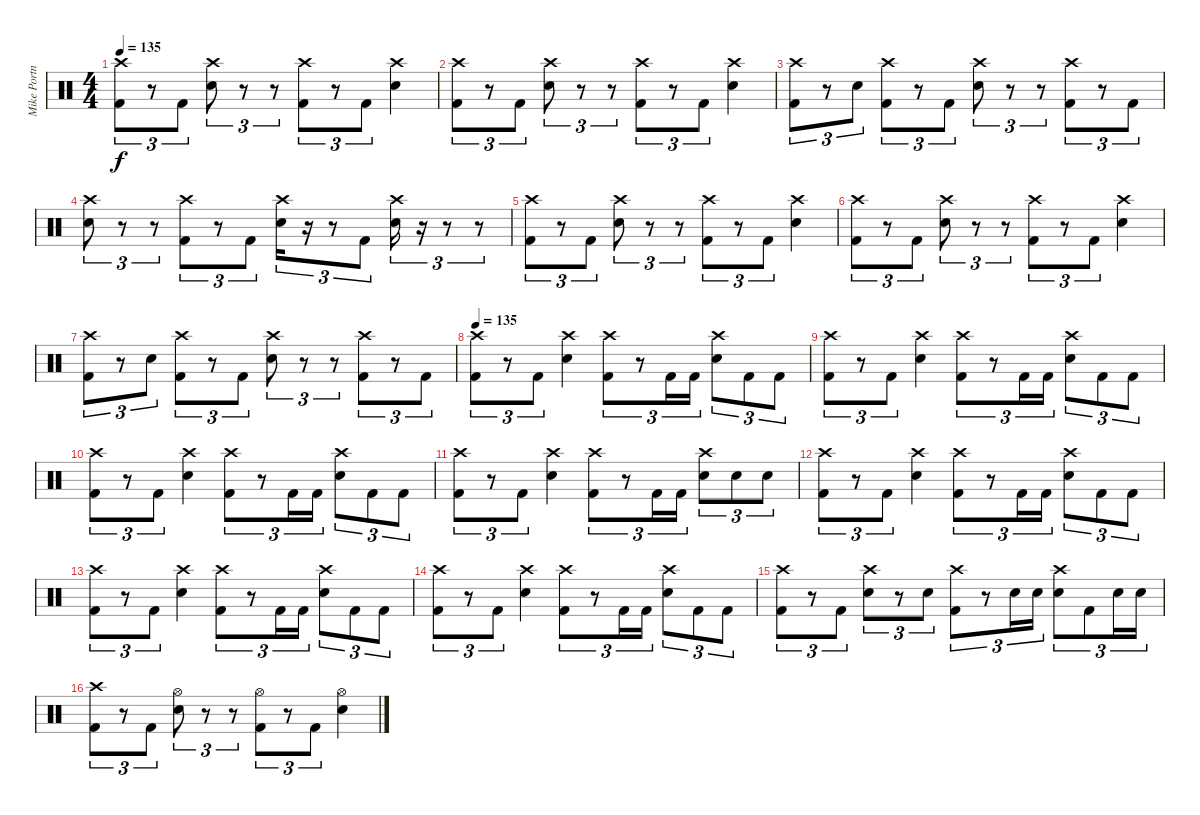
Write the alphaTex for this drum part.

\track ("Mike Portnoy" "Mike Portn") {instrument percussion}
\staff {score}
\articulation defaults
\ts (4 4)
\tempo 135
\clef neutral
\ks c
("Crash high (hit)" "Kick (hit) 2").8{tu (3 2) dy f} r.8{tu (3 2)} "Kick (hit) 2".8{tu (3 2)} ("Crash high (hit)" "Snare (hit) 2").8{tu (3 2)} r.8{tu (3 2)} r.8{tu (3 2)} ("Crash high (hit)" "Kick (hit) 2").8{tu (3 2)} r.8{tu (3 2)} "Kick (hit) 2".8{tu (3 2)} ("Crash high (hit)" "Snare (hit) 2").4 |
("Crash high (hit)" "Kick (hit) 2").8{tu (3 2)} r.8{tu (3 2)} "Kick (hit) 2".8{tu (3 2)} ("Crash high (hit)" "Snare (hit) 2").8{tu (3 2)} r.8{tu (3 2)} r.8{tu (3 2)} ("Crash high (hit)" "Kick (hit) 2").8{tu (3 2)} r.8{tu (3 2)} "Kick (hit) 2".8{tu (3 2)} ("Crash high (hit)" "Snare (hit) 2").4 |
("Crash high (hit)" "Kick (hit) 2").8{tu (3 2)} r.8{tu (3 2)} "Snare (hit) 2".8{tu (3 2)} ("Crash high (hit)" "Kick (hit) 2").8{tu (3 2)} r.8{tu (3 2)} "Kick (hit) 2".8{tu (3 2)} ("Crash high (hit)" "Snare (hit) 2").8{tu (3 2)} r.8{tu (3 2)} r.8{tu (3 2)} ("Crash high (hit)" "Kick (hit) 2").8{tu (3 2)} r.8{tu (3 2)} "Kick (hit) 2".8{tu (3 2)} |
("Crash high (hit)" "Snare (hit) 2").8{tu (3 2)} r.8{tu (3 2)} r.8{tu (3 2)} ("Crash high (hit)" "Kick (hit) 2").8{tu (3 2)} r.8{tu (3 2)} "Kick (hit) 2".8{tu (3 2)} ("Crash high (hit)" "Snare (hit) 2").16{tu (3 2)} r.16{tu (3 2)} r.8{tu (3 2)} "Kick (hit) 2".8{tu (3 2)} ("Crash high (hit)" "Snare (hit) 2").16{tu (3 2)} r.16{tu (3 2)} r.8{tu (3 2)} r.8{tu (3 2)} |
("Crash high (hit)" "Kick (hit) 2").8{tu (3 2)} r.8{tu (3 2)} "Kick (hit) 2".8{tu (3 2)} ("Crash high (hit)" "Snare (hit) 2").8{tu (3 2)} r.8{tu (3 2)} r.8{tu (3 2)} ("Crash high (hit)" "Kick (hit) 2").8{tu (3 2)} r.8{tu (3 2)} "Kick (hit) 2".8{tu (3 2)} ("Crash high (hit)" "Snare (hit) 2").4 |
("Crash high (hit)" "Kick (hit) 2").8{tu (3 2)} r.8{tu (3 2)} "Kick (hit) 2".8{tu (3 2)} ("Crash high (hit)" "Snare (hit) 2").8{tu (3 2)} r.8{tu (3 2)} r.8{tu (3 2)} ("Crash high (hit)" "Kick (hit) 2").8{tu (3 2)} r.8{tu (3 2)} "Kick (hit) 2".8{tu (3 2)} ("Crash high (hit)" "Snare (hit) 2").4 |
("Crash high (hit)" "Kick (hit) 2").8{tu (3 2)} r.8{tu (3 2)} "Snare (hit) 2".8{tu (3 2)} ("Crash high (hit)" "Kick (hit) 2").8{tu (3 2)} r.8{tu (3 2)} "Kick (hit) 2".8{tu (3 2)} ("Crash high (hit)" "Snare (hit) 2").8{tu (3 2)} r.8{tu (3 2)} r.8{tu (3 2)} ("Crash high (hit)" "Kick (hit) 2").8{tu (3 2)} r.8{tu (3 2)} "Kick (hit) 2".8{tu (3 2)} |
\tempo 135
("Crash high (hit)" "Kick (hit) 2").8{tu (3 2)} r.8{tu (3 2)} "Kick (hit) 2".8{tu (3 2)} ("Crash high (hit)" "Snare (hit) 2").4 ("Crash high (hit)" "Kick (hit) 2").8{tu (3 2)} r.8{tu (3 2)} "Kick (hit) 2".16{tu (3 2)} "Kick (hit) 2".16{tu (3 2)} ("Crash high (hit)" "Snare (hit) 2").8{tu (3 2)} "Kick (hit) 2".8{tu (3 2)} "Kick (hit) 2".8{tu (3 2)} |
("Crash high (hit)" "Kick (hit) 2").8{tu (3 2)} r.8{tu (3 2)} "Kick (hit) 2".8{tu (3 2)} ("Crash high (hit)" "Snare (hit) 2").4 ("Crash high (hit)" "Kick (hit) 2").8{tu (3 2)} r.8{tu (3 2)} "Kick (hit) 2".16{tu (3 2)} "Kick (hit) 2".16{tu (3 2)} ("Crash high (hit)" "Snare (hit) 2").8{tu (3 2)} "Kick (hit) 2".8{tu (3 2)} "Kick (hit) 2".8{tu (3 2)} |
("Crash high (hit)" "Kick (hit) 2").8{tu (3 2)} r.8{tu (3 2)} "Kick (hit) 2".8{tu (3 2)} ("Crash high (hit)" "Snare (hit) 2").4 ("Crash high (hit)" "Kick (hit) 2").8{tu (3 2)} r.8{tu (3 2)} "Kick (hit) 2".16{tu (3 2)} "Kick (hit) 2".16{tu (3 2)} ("Crash high (hit)" "Snare (hit) 2").8{tu (3 2)} "Kick (hit) 2".8{tu (3 2)} "Kick (hit) 2".8{tu (3 2)} |
("Crash high (hit)" "Kick (hit) 2").8{tu (3 2)} r.8{tu (3 2)} "Kick (hit) 2".8{tu (3 2)} ("Crash high (hit)" "Snare (hit) 2").4 ("Crash high (hit)" "Kick (hit) 2").8{tu (3 2)} r.8{tu (3 2)} "Kick (hit) 2".16{tu (3 2)} "Kick (hit) 2".16{tu (3 2)} ("Crash high (hit)" "Snare (hit) 2").8{tu (3 2)} "Snare (hit) 2".8{tu (3 2)} "Snare (hit) 2".8{tu (3 2)} |
("Crash high (hit)" "Kick (hit) 2").8{tu (3 2)} r.8{tu (3 2)} "Kick (hit) 2".8{tu (3 2)} ("Crash high (hit)" "Snare (hit) 2").4 ("Crash high (hit)" "Kick (hit) 2").8{tu (3 2)} r.8{tu (3 2)} "Kick (hit) 2".16{tu (3 2)} "Kick (hit) 2".16{tu (3 2)} ("Crash high (hit)" "Snare (hit) 2").8{tu (3 2)} "Kick (hit) 2".8{tu (3 2)} "Kick (hit) 2".8{tu (3 2)} |
("Crash high (hit)" "Kick (hit) 2").8{tu (3 2)} r.8{tu (3 2)} "Kick (hit) 2".8{tu (3 2)} ("Crash high (hit)" "Snare (hit) 2").4 ("Crash high (hit)" "Kick (hit) 2").8{tu (3 2)} r.8{tu (3 2)} "Kick (hit) 2".16{tu (3 2)} "Kick (hit) 2".16{tu (3 2)} ("Crash high (hit)" "Snare (hit) 2").8{tu (3 2)} "Kick (hit) 2".8{tu (3 2)} "Kick (hit) 2".8{tu (3 2)} |
("Crash high (hit)" "Kick (hit) 2").8{tu (3 2)} r.8{tu (3 2)} "Kick (hit) 2".8{tu (3 2)} ("Crash high (hit)" "Snare (hit) 2").4 ("Crash high (hit)" "Kick (hit) 2").8{tu (3 2)} r.8{tu (3 2)} "Kick (hit) 2".16{tu (3 2)} "Kick (hit) 2".16{tu (3 2)} ("Crash high (hit)" "Snare (hit) 2").8{tu (3 2)} "Kick (hit) 2".8{tu (3 2)} "Kick (hit) 2".8{tu (3 2)} |
("Crash high (hit)" "Kick (hit) 2").8{tu (3 2)} r.8{tu (3 2)} "Kick (hit) 2".8{tu (3 2)} ("Crash high (hit)" "Snare (hit) 2").8{tu (3 2)} r.8{tu (3 2)} "Snare (hit) 2".8{tu (3 2)} ("Crash high (hit)" "Kick (hit) 2").8{tu (3 2)} r.8{tu (3 2)} "Snare (hit) 2".16{tu (3 2)} "Snare (hit) 2".16{tu (3 2)} ("Crash high (hit)" "Snare (hit) 2").8{tu (3 2)} "Kick (hit) 2".8{tu (3 2)} "Snare (hit) 2".16{tu (3 2)} "Snare (hit) 2".16{tu (3 2)} |
("Crash high (hit)" "Kick (hit) 2").8{tu (3 2)} r.8{tu (3 2)} "Kick (hit) 2".8{tu (3 2)} ("Hi-Hat (open)" "Snare (hit) 2").8{tu (3 2)} r.8{tu (3 2)} r.8{tu (3 2)} ("Hi-Hat (open)" "Kick (hit) 2").8{tu (3 2)} r.8{tu (3 2)} "Kick (hit) 2".8{tu (3 2)} ("Hi-Hat (open)" "Snare (hit) 2").4
